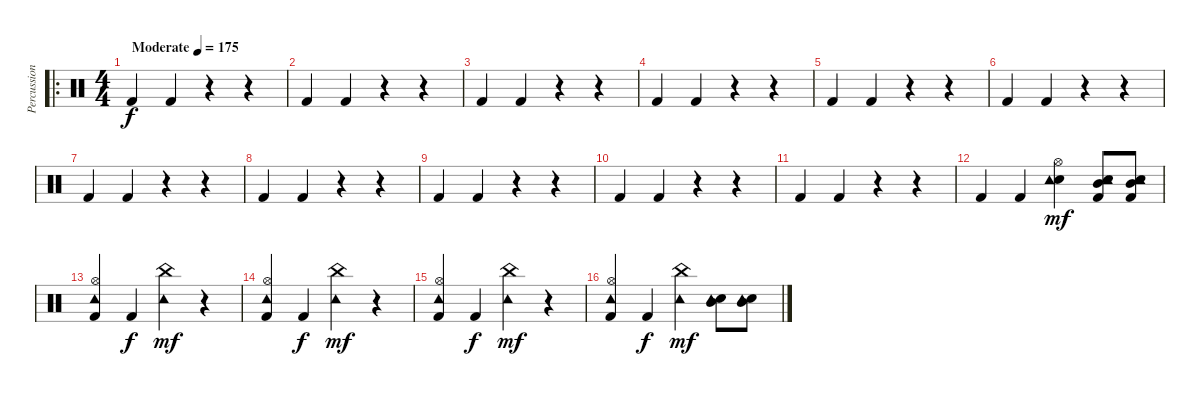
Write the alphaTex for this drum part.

\track ("Percussion" "Percussion") {instrument percussion}
\staff {score}
\articulation defaults
\ro
\ts (4 4)
\tempo (175 "Moderate")
\clef neutral
\ks c "Kick (hit) 2".4{dy f} "Kick (hit) 2".4
r.4 r.4 |
"Kick (hit) 2".4 "Kick (hit) 2".4 r.4 r.4 |
"Kick (hit) 2".4 "Kick (hit) 2".4 r.4 r.4 |
"Kick (hit) 2".4 "Kick (hit) 2".4 r.4 r.4 |
"Kick (hit) 2".4 "Kick (hit) 2".4 r.4 r.4 |
"Kick (hit) 2".4 "Kick (hit) 2".4 r.4 r.4 |
"Kick (hit) 2".4 "Kick (hit) 2".4 r.4 r.4 |
"Kick (hit) 2".4 "Kick (hit) 2".4 r.4 r.4 |
"Kick (hit) 2".4 "Kick (hit) 2".4 r.4 r.4 |
"Kick (hit) 2".4 "Kick (hit) 2".4 r.4 r.4 |
"Kick (hit) 2".4 "Kick (hit) 2".4 r.4 r.4 |
"Kick (hit) 2".4 "Kick (hit) 2".4 ("Electric Snare (hit)" "Hi-Hat (open)" "Tambourine (hit)").4{dy mf} ("Kick (hit) 2" "Electric Snare (hit)" "Mid Tom (hit)" "Tambourine (hit)").8 ("Kick (hit) 2" "Electric Snare (hit)" "Mid Tom (hit)" "Tambourine (hit)").8 |
("Kick (hit) 2" "Hi-Hat (open)" "Tambourine (hit)").4 "Kick (hit) 2".4{dy f} ("China (hit)" "Tambourine (hit)").4{dy mf} r.4 |
("Kick (hit) 2" "Hi-Hat (open)" "Tambourine (hit)").4 "Kick (hit) 2".4{dy f} ("China (hit)" "Tambourine (hit)").4{dy mf} r.4 |
("Kick (hit) 2" "Hi-Hat (open)" "Tambourine (hit)").4 "Kick (hit) 2".4{dy f} ("China (hit)" "Tambourine (hit)").4{dy mf} r.4 |
("Kick (hit) 2" "Hi-Hat (open)" "Tambourine (hit)").4 "Kick (hit) 2".4{dy f} ("China (hit)" "Tambourine (hit)").4{dy mf} ("Electric Snare (hit)" "Mid Tom (hit)" "Tambourine (hit)").8 ("Electric Snare (hit)" "Mid Tom (hit)" "Tambourine (hit)").8
